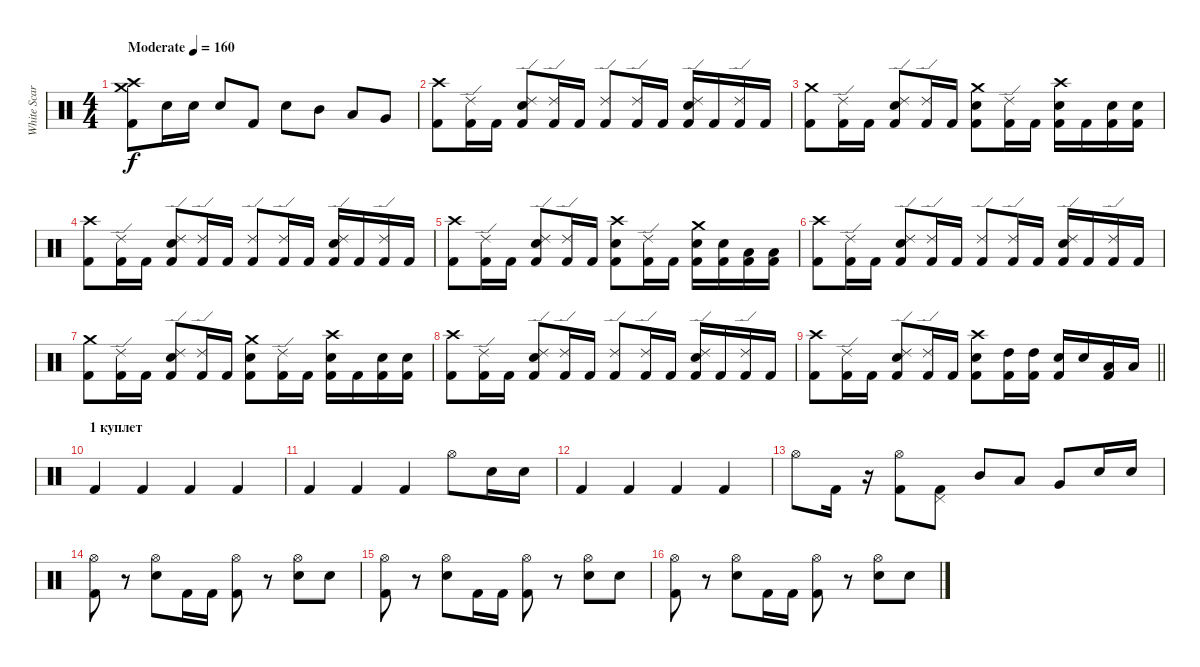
\track ("White Scar" "White Scar") {instrument percussion}
\staff {score}
\articulation defaults
\ts (4 4)
\tempo (160 "Moderate")
\clef neutral
\ks c
("Crash medium (hit)" "Crash high (hit)" "Kick (hit) 2").8{dy f} "Snare (hit) 2".16 "Snare (hit) 2".16 "Snare (hit) 2".8 "Kick (hit) 2".8 "Snare (hit) 2".8 "Mid Tom (hit)".8 "Low Tom (hit)".8 "Very Low Tom (hit)".8 |
("Crash high (hit)" "Kick (hit) 2").8 ("Ride (edge) 2" "Kick (hit) 2").16 "Kick (hit) 2".16 ("Ride (edge) 2" "Snare (hit) 2" "Kick (hit) 2").8 ("Ride (edge) 2" "Kick (hit) 2").16 "Kick (hit) 2".16 ("Ride (edge) 2" "Kick (hit) 2").8 ("Ride (edge) 2" "Kick (hit) 2").16 "Kick (hit) 2".16 ("Ride (edge) 2" "Snare (hit) 2" "Kick (hit) 2").16 "Kick (hit) 2".16 ("Ride (edge) 2" "Kick (hit) 2").16 "Kick (hit) 2".16 |
("Crash medium (hit)" "Kick (hit) 2").8 ("Ride (edge) 2" "Kick (hit) 2").16 "Kick (hit) 2".16 ("Ride (edge) 2" "Snare (hit) 2" "Kick (hit) 2").8 ("Ride (edge) 2" "Kick (hit) 2").16 "Kick (hit) 2".16 ("Crash medium (hit)" "Snare (hit) 2" "Kick (hit) 2").8 ("Ride (edge) 2" "Kick (hit) 2").16 "Kick (hit) 2".16 ("Crash high (hit)" "Snare (hit) 2" "Kick (hit) 2").16 "Kick (hit) 2".16 ("Snare (hit) 2" "Kick (hit) 2").16 ("Snare (hit) 2" "Kick (hit) 2").16 |
("Crash high (hit)" "Kick (hit) 2").8 ("Ride (edge) 2" "Kick (hit) 2").16 "Kick (hit) 2".16 ("Ride (edge) 2" "Snare (hit) 2" "Kick (hit) 2").8 ("Ride (edge) 2" "Kick (hit) 2").16 "Kick (hit) 2".16 ("Ride (edge) 2" "Kick (hit) 2").8 ("Ride (edge) 2" "Kick (hit) 2").16 "Kick (hit) 2".16 ("Ride (edge) 2" "Snare (hit) 2" "Kick (hit) 2").16 "Kick (hit) 2".16 ("Ride (edge) 2" "Kick (hit) 2").16 "Kick (hit) 2".16 |
("Crash high (hit)" "Kick (hit) 2").8 ("Ride (edge) 2" "Kick (hit) 2").16 "Kick (hit) 2".16 ("Ride (edge) 2" "Snare (hit) 2" "Kick (hit) 2").8 ("Ride (edge) 2" "Kick (hit) 2").16 "Kick (hit) 2".16 ("Crash high (hit)" "Snare (hit) 2" "Kick (hit) 2").8 ("Ride (edge) 2" "Kick (hit) 2").16 "Kick (hit) 2".16 ("Crash medium (hit)" "Snare (hit) 2" "Kick (hit) 2").16 ("Snare (hit) 2" "Kick (hit) 2").16 ("Low Tom (hit)" "Kick (hit) 2").16 ("Low Tom (hit)" "Kick (hit) 2").16 |
("Crash high (hit)" "Kick (hit) 2").8 ("Ride (edge) 2" "Kick (hit) 2").16 "Kick (hit) 2".16 ("Ride (edge) 2" "Snare (hit) 2" "Kick (hit) 2").8 ("Ride (edge) 2" "Kick (hit) 2").16 "Kick (hit) 2".16 ("Ride (edge) 2" "Kick (hit) 2").8 ("Ride (edge) 2" "Kick (hit) 2").16 "Kick (hit) 2".16 ("Ride (edge) 2" "Snare (hit) 2" "Kick (hit) 2").16 "Kick (hit) 2".16 ("Ride (edge) 2" "Kick (hit) 2").16 "Kick (hit) 2".16 |
("Crash medium (hit)" "Kick (hit) 2").8 ("Ride (edge) 2" "Kick (hit) 2").16 "Kick (hit) 2".16 ("Ride (edge) 2" "Snare (hit) 2" "Kick (hit) 2").8 ("Ride (edge) 2" "Kick (hit) 2").16 "Kick (hit) 2".16 ("Crash medium (hit)" "Snare (hit) 2" "Kick (hit) 2").8 ("Ride (edge) 2" "Kick (hit) 2").16 "Kick (hit) 2".16 ("Crash high (hit)" "Snare (hit) 2" "Kick (hit) 2").16 "Kick (hit) 2".16 ("Snare (hit) 2" "Kick (hit) 2").16 ("Snare (hit) 2" "Kick (hit) 2").16 |
("Crash high (hit)" "Kick (hit) 2").8 ("Ride (edge) 2" "Kick (hit) 2").16 "Kick (hit) 2".16 ("Ride (edge) 2" "Snare (hit) 2" "Kick (hit) 2").8 ("Ride (edge) 2" "Kick (hit) 2").16 "Kick (hit) 2".16 ("Ride (edge) 2" "Kick (hit) 2").8 ("Ride (edge) 2" "Kick (hit) 2").16 "Kick (hit) 2".16 ("Ride (edge) 2" "Snare (hit) 2" "Kick (hit) 2").16 "Kick (hit) 2".16 ("Ride (edge) 2" "Kick (hit) 2").16 "Kick (hit) 2".16 |
\barLineRight lightlight
("Crash high (hit)" "Kick (hit) 2").8 ("Ride (edge) 2" "Kick (hit) 2").16 "Kick (hit) 2".16 ("Ride (edge) 2" "Snare (hit) 2" "Kick (hit) 2").8 ("Ride (edge) 2" "Kick (hit) 2").16 "Kick (hit) 2".16 ("Crash high (hit)" "Snare (hit) 2" "Kick (hit) 2").8 ("High Tom (hit)" "Kick (hit) 2").16 ("High Tom (hit)" "Kick (hit) 2").16 ("Snare (hit) 2" "Kick (hit) 2").16 "Snare (hit) 2".16 ("Low Tom (hit)" "Kick (hit) 2").16 "Low Tom (hit)".16 |
\section ("" "1 куплет")
"Kick (hit) 2".4 "Kick (hit) 2".4 "Kick (hit) 2".4 "Kick (hit) 2".4 |
"Kick (hit) 2".4 "Kick (hit) 2".4 "Kick (hit) 2".4 "Hi-Hat (open)".8 "Snare (hit) 2".16 "Snare (hit) 2".16 |
"Kick (hit) 2".4 "Kick (hit) 2".4 "Kick (hit) 2".4 "Kick (hit) 2".4 |
"Hi-Hat (open)".8 "Kick (hit) 2".16 r.16 ("Hi-Hat (open)" "Kick (hit) 2").8 ("Pedal Hi-Hat (hit)" "Kick (hit) 2").8 "Mid Tom (hit)".8 "Low Tom (hit)".8 "Very Low Tom (hit)".8 "Snare (hit) 2".16 "Snare (hit) 2".16 |
("Hi-Hat (open)" "Kick (hit) 2").8 r.8 ("Hi-Hat (open)" "Snare (hit) 2").8 "Kick (hit) 2".16 "Kick (hit) 2".16 ("Hi-Hat (open)" "Kick (hit) 2").8 r.8 ("Hi-Hat (open)" "Snare (hit) 2").8 "Snare (hit) 2".8 |
("Hi-Hat (open)" "Kick (hit) 2").8 r.8 ("Hi-Hat (open)" "Snare (hit) 2").8 "Kick (hit) 2".16 "Kick (hit) 2".16 ("Hi-Hat (open)" "Kick (hit) 2").8 r.8 ("Hi-Hat (open)" "Snare (hit) 2").8 "Snare (hit) 2".8 |
("Hi-Hat (open)" "Kick (hit) 2").8 r.8 ("Hi-Hat (open)" "Snare (hit) 2").8 "Kick (hit) 2".16 "Kick (hit) 2".16 ("Hi-Hat (open)" "Kick (hit) 2").8 r.8 ("Hi-Hat (open)" "Snare (hit) 2").8 "Snare (hit) 2".8
